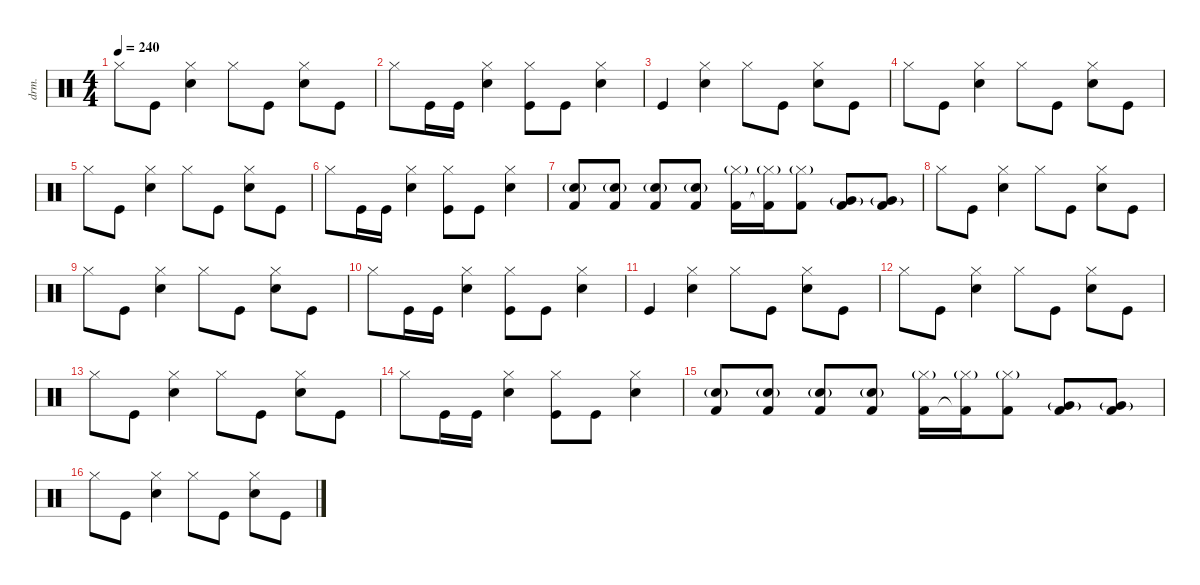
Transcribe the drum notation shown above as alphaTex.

\defaultSystemsLayout 4
\hideDynamics
\bracketExtendMode nobrackets
\track ("dany" "drm.") {instrument percussion}
\staff {score}
\articulation defaults
\ts (4 4)
\tempo 240
\clef neutral
\ks c "Hi-Hat (closed)".8{dy f beam Down} "Kick (hit)".8{beam Down}
("Snare (hit) 2" "Hi-Hat (closed)").4{beam Down} "Hi-Hat (closed)".8{beam Down} "Kick (hit)".8{beam Down} ("Snare (hit) 2" "Hi-Hat (closed)").8{beam Down} "Kick (hit)".8{beam Down} |
"Hi-Hat (closed)".8{beam Down} "Kick (hit)".16{beam Down} "Kick (hit)".16{beam Down} ("Snare (hit) 2" "Hi-Hat (closed)").4{beam Down} ("Kick (hit)" "Hi-Hat (closed)").8{beam Down} "Kick (hit)".8{beam Down} ("Snare (hit) 2" "Hi-Hat (closed)").4{beam Down} |
"Kick (hit)".4{beam Up} ("Snare (hit) 2" "Hi-Hat (closed)").4{beam Down} "Hi-Hat (closed)".8{beam Down} "Kick (hit)".8{beam Down} ("Snare (hit) 2" "Hi-Hat (closed)").8{beam Down} "Kick (hit)".8{beam Down} |
"Hi-Hat (closed)".8{beam Down} "Kick (hit)".8{beam Down} ("Snare (hit) 2" "Hi-Hat (closed)").4{beam Down} "Hi-Hat (closed)".8{beam Down} "Kick (hit)".8{beam Down} ("Snare (hit) 2" "Hi-Hat (closed)").8{beam Down} "Kick (hit)".8{beam Down} |
"Hi-Hat (closed)".8{beam Down} "Kick (hit)".8{beam Down} ("Snare (hit) 2" "Hi-Hat (closed)").4{beam Down} "Hi-Hat (closed)".8{beam Down} "Kick (hit)".8{beam Down} ("Snare (hit) 2" "Hi-Hat (closed)").8{beam Down} "Kick (hit)".8{beam Down} |
"Hi-Hat (closed)".8{beam Down} "Kick (hit)".16{beam Down} "Kick (hit)".16{beam Down} ("Snare (hit) 2" "Hi-Hat (closed)").4{beam Down} ("Kick (hit)" "Hi-Hat (closed)").8{beam Down} "Kick (hit)".8{beam Down} ("Snare (hit) 2" "Hi-Hat (closed)").4{beam Down} |
("Kick (hit) 2" "Snare (hit) 2"{g}).8{beam Up} ("Kick (hit) 2" "Snare (hit) 2"{g}).8{beam Up} ("Kick (hit) 2" "Snare (hit) 2"{g}).8{beam Up} ("Kick (hit) 2" "Snare (hit) 2"{g}).8{beam Up} ("Kick (hit) 2" "Hi-Hat (closed)"{g}).16{beam Down} ("Kick (hit) 2"{t} "Hi-Hat (closed)"{g}).16{beam Down} ("Kick (hit) 2" "Hi-Hat (closed)"{g}).8{beam Down} ("Kick (hit) 2" "Very Low Tom (hit)"{g}).8{beam Up} ("Kick (hit) 2" "Very Low Tom (hit)"{g}).8{beam Up} |
"Hi-Hat (closed)".8{beam Down} "Kick (hit)".8{beam Down} ("Snare (hit) 2" "Hi-Hat (closed)").4{beam Down} "Hi-Hat (closed)".8{beam Down} "Kick (hit)".8{beam Down} ("Snare (hit) 2" "Hi-Hat (closed)").8{beam Down} "Kick (hit)".8{beam Down} |
"Hi-Hat (closed)".8{beam Down} "Kick (hit)".8{beam Down} ("Snare (hit) 2" "Hi-Hat (closed)").4{beam Down} "Hi-Hat (closed)".8{beam Down} "Kick (hit)".8{beam Down} ("Snare (hit) 2" "Hi-Hat (closed)").8{beam Down} "Kick (hit)".8{beam Down} |
"Hi-Hat (closed)".8{beam Down} "Kick (hit)".16{beam Down} "Kick (hit)".16{beam Down} ("Snare (hit) 2" "Hi-Hat (closed)").4{beam Down} ("Kick (hit)" "Hi-Hat (closed)").8{beam Down} "Kick (hit)".8{beam Down} ("Snare (hit) 2" "Hi-Hat (closed)").4{beam Down} |
"Kick (hit)".4{beam Up} ("Snare (hit) 2" "Hi-Hat (closed)").4{beam Down} "Hi-Hat (closed)".8{beam Down} "Kick (hit)".8{beam Down} ("Snare (hit) 2" "Hi-Hat (closed)").8{beam Down} "Kick (hit)".8{beam Down} |
"Hi-Hat (closed)".8{beam Down} "Kick (hit)".8{beam Down} ("Snare (hit) 2" "Hi-Hat (closed)").4{beam Down} "Hi-Hat (closed)".8{beam Down} "Kick (hit)".8{beam Down} ("Snare (hit) 2" "Hi-Hat (closed)").8{beam Down} "Kick (hit)".8{beam Down} |
"Hi-Hat (closed)".8{beam Down} "Kick (hit)".8{beam Down} ("Snare (hit) 2" "Hi-Hat (closed)").4{beam Down} "Hi-Hat (closed)".8{beam Down} "Kick (hit)".8{beam Down} ("Snare (hit) 2" "Hi-Hat (closed)").8{beam Down} "Kick (hit)".8{beam Down} |
"Hi-Hat (closed)".8{beam Down} "Kick (hit)".16{beam Down} "Kick (hit)".16{beam Down} ("Snare (hit) 2" "Hi-Hat (closed)").4{beam Down} ("Kick (hit)" "Hi-Hat (closed)").8{beam Down} "Kick (hit)".8{beam Down} ("Snare (hit) 2" "Hi-Hat (closed)").4{beam Down} |
("Kick (hit) 2" "Snare (hit) 2"{g}).8{beam Up} ("Kick (hit) 2" "Snare (hit) 2"{g}).8{beam Up} ("Kick (hit) 2" "Snare (hit) 2"{g}).8{beam Up} ("Kick (hit) 2" "Snare (hit) 2"{g}).8{beam Up} ("Kick (hit) 2" "Hi-Hat (closed)"{g}).16{beam Down} ("Kick (hit) 2"{t} "Hi-Hat (closed)"{g}).16{beam Down} ("Kick (hit) 2" "Hi-Hat (closed)"{g}).8{beam Down} ("Kick (hit) 2" "Very Low Tom (hit)"{g}).8{beam Up} ("Kick (hit) 2" "Very Low Tom (hit)"{g}).8{beam Up} |
"Hi-Hat (closed)".8{beam Down} "Kick (hit)".8{beam Down} ("Snare (hit) 2" "Hi-Hat (closed)").4{beam Down} "Hi-Hat (closed)".8{beam Down} "Kick (hit)".8{beam Down} ("Snare (hit) 2" "Hi-Hat (closed)").8{beam Down} "Kick (hit)".8{beam Down}
